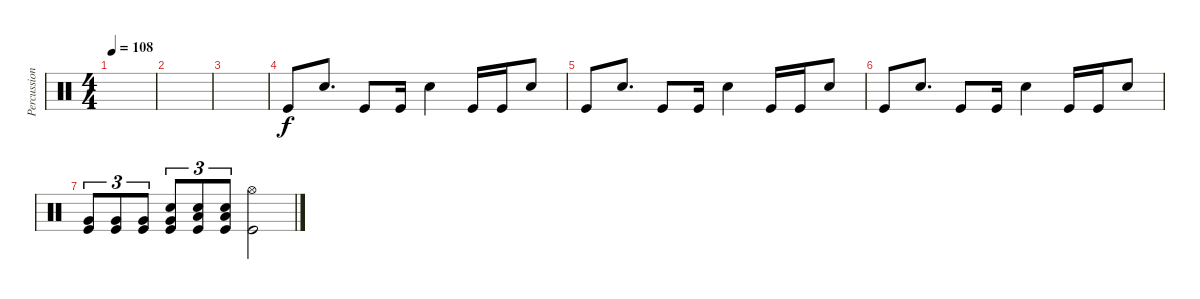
\track ("Percussion" "Percussion") {instrument percussion}
\staff {score}
\articulation defaults
\ts (4 4)
\tempo 108
\clef neutral
\ks c
|
|
|
"Kick (hit)".8 "Snare (hit) 2".8{d} "Kick (hit)".8 "Kick (hit)".16 "Snare (hit) 2".4 "Kick (hit)".16 "Kick (hit)".16 "Snare (hit) 2".8 |
"Kick (hit)".8 "Snare (hit) 2".8{d} "Kick (hit)".8 "Kick (hit)".16 "Snare (hit) 2".4 "Kick (hit)".16 "Kick (hit)".16 "Snare (hit) 2".8 |
"Kick (hit)".8 "Snare (hit) 2".8{d} "Kick (hit)".8 "Kick (hit)".16 "Snare (hit) 2".4 "Kick (hit)".16 "Kick (hit)".16 "Snare (hit) 2".8 |
("Very Low Tom (hit)" "Kick (hit)").8{tu (3 2)} ("Very Low Tom (hit)" "Kick (hit)").8{tu (3 2)} ("Very Low Tom (hit)" "Kick (hit)").8{tu (3 2)} ("Snare (hit) 2" "Very Low Tom (hit)" "Kick (hit)").8{tu (3 2)} ("Snare (hit) 2" "Low Tom (hit)" "Kick (hit)").8{tu (3 2)} ("Snare (hit) 2" "Low Tom (hit)" "Kick (hit)").8{tu (3 2)} ("Hi-Hat (open)" "Kick (hit)").2
